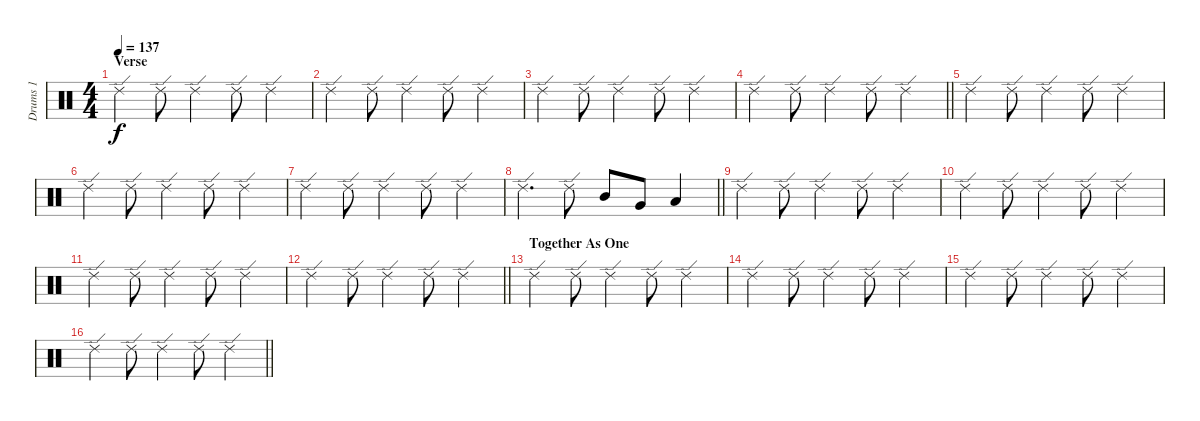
\track ("Drums 1" "Drums 1") {instrument percussion}
\staff {score}
\articulation defaults
\ts (4 4)
\section ("" "Verse")
\tempo 137
\clef neutral
\ks c "Ride (edge) 2".4{dy f} "Ride (edge) 2".8 "Ride (edge) 2".4 "Ride (edge) 2".8 "Ride (edge) 2".4
|
"Ride (edge) 2".4 "Ride (edge) 2".8 "Ride (edge) 2".4 "Ride (edge) 2".8 "Ride (edge) 2".4 |
"Ride (edge) 2".4 "Ride (edge) 2".8 "Ride (edge) 2".4 "Ride (edge) 2".8 "Ride (edge) 2".4 |
\barLineRight lightlight "Ride (edge) 2".4 "Ride (edge) 2".8 "Ride (edge) 2".4 "Ride (edge) 2".8 "Ride (edge) 2".4
|
"Ride (edge) 2".4 "Ride (edge) 2".8 "Ride (edge) 2".4 "Ride (edge) 2".8 "Ride (edge) 2".4 |
"Ride (edge) 2".4 "Ride (edge) 2".8 "Ride (edge) 2".4 "Ride (edge) 2".8 "Ride (edge) 2".4 |
"Ride (edge) 2".4 "Ride (edge) 2".8 "Ride (edge) 2".4 "Ride (edge) 2".8 "Ride (edge) 2".4 |
\barLineRight lightlight "Ride (edge) 2".4{d} "Ride (edge) 2".8 "Mid Tom (hit)".8 "Very Low Tom (hit)".8 "Low Floor Tom (hit)".4
|
"Ride (edge) 2".4 "Ride (edge) 2".8 "Ride (edge) 2".4 "Ride (edge) 2".8 "Ride (edge) 2".4 |
"Ride (edge) 2".4 "Ride (edge) 2".8 "Ride (edge) 2".4 "Ride (edge) 2".8 "Ride (edge) 2".4 |
"Ride (edge) 2".4 "Ride (edge) 2".8 "Ride (edge) 2".4 "Ride (edge) 2".8 "Ride (edge) 2".4 |
\barLineRight lightlight "Ride (edge) 2".4 "Ride (edge) 2".8 "Ride (edge) 2".4 "Ride (edge) 2".8 "Ride (edge) 2".4
|
\section ("" "Together As One")
"Ride (edge) 2".4 "Ride (edge) 2".8 "Ride (edge) 2".4 "Ride (edge) 2".8 "Ride (edge) 2".4 |
"Ride (edge) 2".4 "Ride (edge) 2".8 "Ride (edge) 2".4 "Ride (edge) 2".8 "Ride (edge) 2".4 |
"Ride (edge) 2".4 "Ride (edge) 2".8 "Ride (edge) 2".4 "Ride (edge) 2".8 "Ride (edge) 2".4 |
\barLineRight lightlight "Ride (edge) 2".4 "Ride (edge) 2".8 "Ride (edge) 2".4 "Ride (edge) 2".8 "Ride (edge) 2".4
